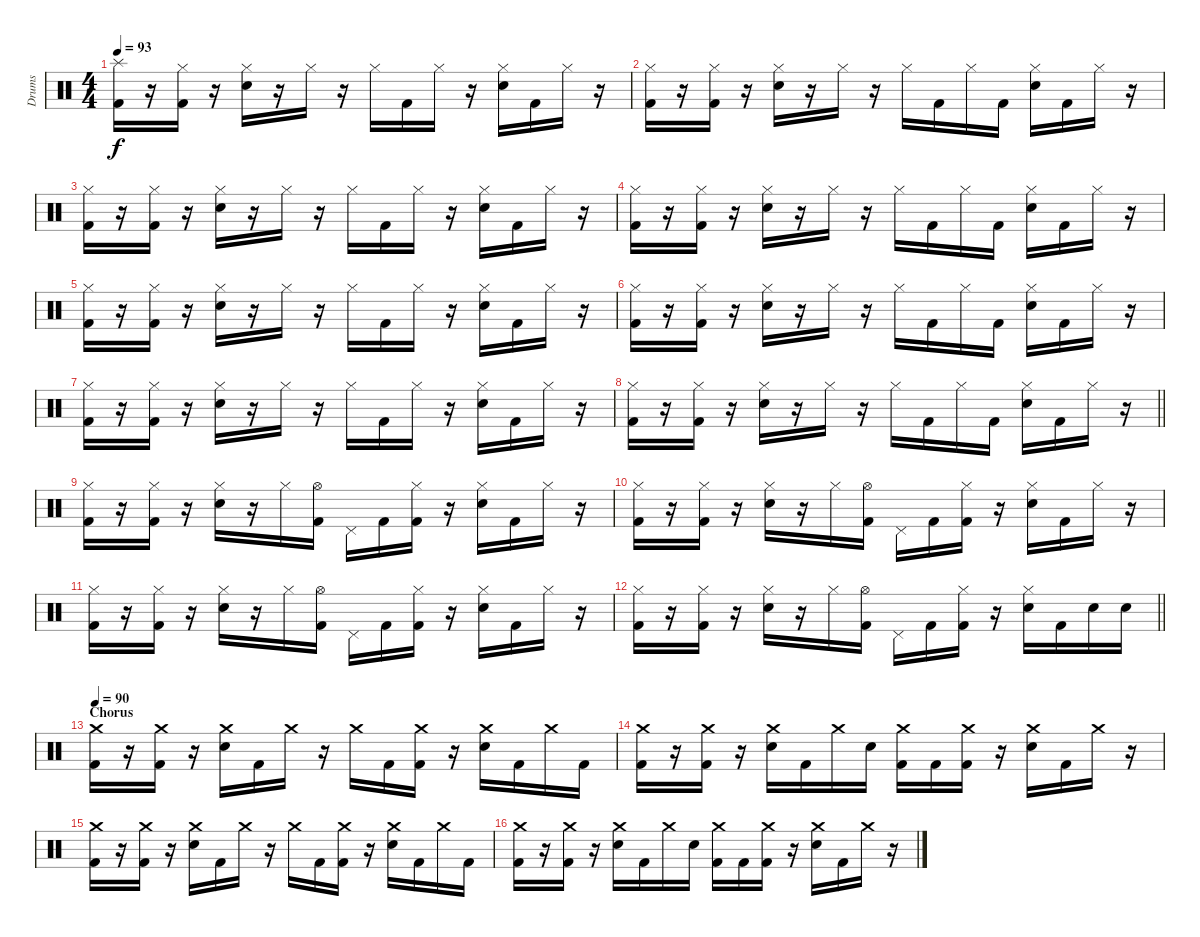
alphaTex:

\track ("Drums" "Drums") {instrument percussion}
\staff {score}
\articulation defaults
\ts (4 4)
\tempo 93
\clef neutral
\ks c
("Splash (hit)" "Kick (hit) 2").16{dy f} r.16 ("Hi-Hat (closed)" "Kick (hit) 2").16 r.16 ("Hi-Hat (closed)" "Electric Snare (hit)").16 r.16 "Hi-Hat (closed)".16 r.16 "Hi-Hat (closed)".16 "Kick (hit) 2".16 "Hi-Hat (closed)".16 r.16 ("Hi-Hat (closed)" "Electric Snare (hit)").16 "Kick (hit) 2".16 "Hi-Hat (closed)".16 r.16 |
("Hi-Hat (closed)" "Kick (hit) 2").16 r.16 ("Hi-Hat (closed)" "Kick (hit) 2").16 r.16 ("Hi-Hat (closed)" "Electric Snare (hit)").16 r.16 "Hi-Hat (closed)".16 r.16 "Hi-Hat (closed)".16 "Kick (hit) 2".16 "Hi-Hat (closed)".16 "Kick (hit) 2".16 ("Hi-Hat (closed)" "Electric Snare (hit)").16 "Kick (hit) 2".16 "Hi-Hat (closed)".16 r.16 |
("Hi-Hat (closed)" "Kick (hit) 2").16 r.16 ("Hi-Hat (closed)" "Kick (hit) 2").16 r.16 ("Hi-Hat (closed)" "Electric Snare (hit)").16 r.16 "Hi-Hat (closed)".16 r.16 "Hi-Hat (closed)".16 "Kick (hit) 2".16 "Hi-Hat (closed)".16 r.16 ("Hi-Hat (closed)" "Electric Snare (hit)").16 "Kick (hit) 2".16 "Hi-Hat (closed)".16 r.16 |
("Hi-Hat (closed)" "Kick (hit) 2").16 r.16 ("Hi-Hat (closed)" "Kick (hit) 2").16 r.16 ("Hi-Hat (closed)" "Electric Snare (hit)").16 r.16 "Hi-Hat (closed)".16 r.16 "Hi-Hat (closed)".16 "Kick (hit) 2".16 "Hi-Hat (closed)".16 "Kick (hit) 2".16 ("Hi-Hat (closed)" "Electric Snare (hit)").16 "Kick (hit) 2".16 "Hi-Hat (closed)".16 r.16 |
("Hi-Hat (closed)" "Kick (hit) 2").16 r.16 ("Hi-Hat (closed)" "Kick (hit) 2").16 r.16 ("Hi-Hat (closed)" "Electric Snare (hit)").16 r.16 "Hi-Hat (closed)".16 r.16 "Hi-Hat (closed)".16 "Kick (hit) 2".16 "Hi-Hat (closed)".16 r.16 ("Hi-Hat (closed)" "Electric Snare (hit)").16 "Kick (hit) 2".16 "Hi-Hat (closed)".16 r.16 |
("Hi-Hat (closed)" "Kick (hit) 2").16 r.16 ("Hi-Hat (closed)" "Kick (hit) 2").16 r.16 ("Hi-Hat (closed)" "Electric Snare (hit)").16 r.16 "Hi-Hat (closed)".16 r.16 "Hi-Hat (closed)".16 "Kick (hit) 2".16 "Hi-Hat (closed)".16 "Kick (hit) 2".16 ("Hi-Hat (closed)" "Electric Snare (hit)").16 "Kick (hit) 2".16 "Hi-Hat (closed)".16 r.16 |
("Hi-Hat (closed)" "Kick (hit) 2").16 r.16 ("Hi-Hat (closed)" "Kick (hit) 2").16 r.16 ("Hi-Hat (closed)" "Electric Snare (hit)").16 r.16 "Hi-Hat (closed)".16 r.16 "Hi-Hat (closed)".16 "Kick (hit) 2".16 "Hi-Hat (closed)".16 r.16 ("Hi-Hat (closed)" "Electric Snare (hit)").16 "Kick (hit) 2".16 "Hi-Hat (closed)".16 r.16 |
\barLineRight lightlight
("Hi-Hat (closed)" "Kick (hit) 2").16 r.16 ("Hi-Hat (closed)" "Kick (hit) 2").16 r.16 ("Hi-Hat (closed)" "Electric Snare (hit)").16 r.16 "Hi-Hat (closed)".16 r.16 "Hi-Hat (closed)".16 "Kick (hit) 2".16 "Hi-Hat (closed)".16 "Kick (hit) 2".16 ("Hi-Hat (closed)" "Electric Snare (hit)").16 "Kick (hit) 2".16 "Hi-Hat (closed)".16 r.16 |
\section ("" "")
("Hi-Hat (closed)" "Kick (hit) 2").16 r.16 ("Hi-Hat (closed)" "Kick (hit) 2").16 r.16 ("Hi-Hat (closed)" "Electric Snare (hit)").16 r.16 "Hi-Hat (closed)".16 ("Hi-Hat (open)" "Kick (hit) 2").16 "Pedal Hi-Hat (hit)".16 "Kick (hit) 2".16 ("Hi-Hat (closed)" "Kick (hit) 2").16 r.16 ("Hi-Hat (closed)" "Electric Snare (hit)").16 "Kick (hit) 2".16 "Hi-Hat (closed)".16 r.16 |
("Hi-Hat (closed)" "Kick (hit) 2").16 r.16 ("Hi-Hat (closed)" "Kick (hit) 2").16 r.16 ("Hi-Hat (closed)" "Electric Snare (hit)").16 r.16 "Hi-Hat (closed)".16 ("Hi-Hat (open)" "Kick (hit) 2").16 "Pedal Hi-Hat (hit)".16 "Kick (hit) 2".16 ("Hi-Hat (closed)" "Kick (hit) 2").16 r.16 ("Hi-Hat (closed)" "Electric Snare (hit)").16 "Kick (hit) 2".16 "Hi-Hat (closed)".16 r.16 |
("Hi-Hat (closed)" "Kick (hit) 2").16 r.16 ("Hi-Hat (closed)" "Kick (hit) 2").16 r.16 ("Hi-Hat (closed)" "Electric Snare (hit)").16 r.16 "Hi-Hat (closed)".16 ("Hi-Hat (open)" "Kick (hit) 2").16 "Pedal Hi-Hat (hit)".16 "Kick (hit) 2".16 ("Hi-Hat (closed)" "Kick (hit) 2").16 r.16 ("Hi-Hat (closed)" "Electric Snare (hit)").16 "Kick (hit) 2".16 "Hi-Hat (closed)".16 r.16 |
\barLineRight lightlight
("Hi-Hat (closed)" "Kick (hit) 2").16 r.16 ("Hi-Hat (closed)" "Kick (hit) 2").16 r.16 ("Hi-Hat (closed)" "Electric Snare (hit)").16 r.16 "Hi-Hat (closed)".16 ("Hi-Hat (open)" "Kick (hit) 2").16 "Pedal Hi-Hat (hit)".16 "Kick (hit) 2".16 ("Hi-Hat (closed)" "Kick (hit) 2").16 r.16 ("Hi-Hat (closed)" "Electric Snare (hit)").16 "Kick (hit) 2".16 "Electric Snare (hit)".16 "Electric Snare (hit)".16 |
\section ("" "Chorus")
\tempo 90
("Crash medium (hit)" "Kick (hit) 2").16 r.16 ("Crash medium (hit)" "Kick (hit) 2").16 r.16 ("Crash medium (hit)" "Electric Snare (hit)").16 "Kick (hit) 2".16 "Crash medium (hit)".16 r.16 "Crash medium (hit)".16 "Kick (hit) 2".16 ("Crash medium (hit)" "Kick (hit) 2").16 r.16 ("Crash medium (hit)" "Electric Snare (hit)").16 "Kick (hit) 2".16 "Crash medium (hit)".16 "Kick (hit) 2".16 |
("Crash medium (hit)" "Kick (hit) 2").16 r.16 ("Crash medium (hit)" "Kick (hit) 2").16 r.16 ("Crash medium (hit)" "Electric Snare (hit)").16 "Kick (hit) 2".16 "Crash medium (hit)".16 "Electric Snare (hit)".16 ("Crash medium (hit)" "Kick (hit) 2").16 "Kick (hit) 2".16 ("Crash medium (hit)" "Kick (hit) 2").16 r.16 ("Crash medium (hit)" "Electric Snare (hit)").16 "Kick (hit) 2".16 "Crash medium (hit)".16 r.16 |
("Crash medium (hit)" "Kick (hit) 2").16 r.16 ("Crash medium (hit)" "Kick (hit) 2").16 r.16 ("Crash medium (hit)" "Electric Snare (hit)").16 "Kick (hit) 2".16 "Crash medium (hit)".16 r.16 "Crash medium (hit)".16 "Kick (hit) 2".16 ("Crash medium (hit)" "Kick (hit) 2").16 r.16 ("Crash medium (hit)" "Electric Snare (hit)").16 "Kick (hit) 2".16 "Crash medium (hit)".16 "Kick (hit) 2".16 |
("Crash medium (hit)" "Kick (hit) 2").16 r.16 ("Crash medium (hit)" "Kick (hit) 2").16 r.16 ("Crash medium (hit)" "Electric Snare (hit)").16 "Kick (hit) 2".16 "Crash medium (hit)".16 "Electric Snare (hit)".16 ("Crash medium (hit)" "Kick (hit) 2").16 "Kick (hit) 2".16 ("Crash medium (hit)" "Kick (hit) 2").16 r.16 ("Crash medium (hit)" "Electric Snare (hit)").16 "Kick (hit) 2".16 "Crash medium (hit)".16 r.16
